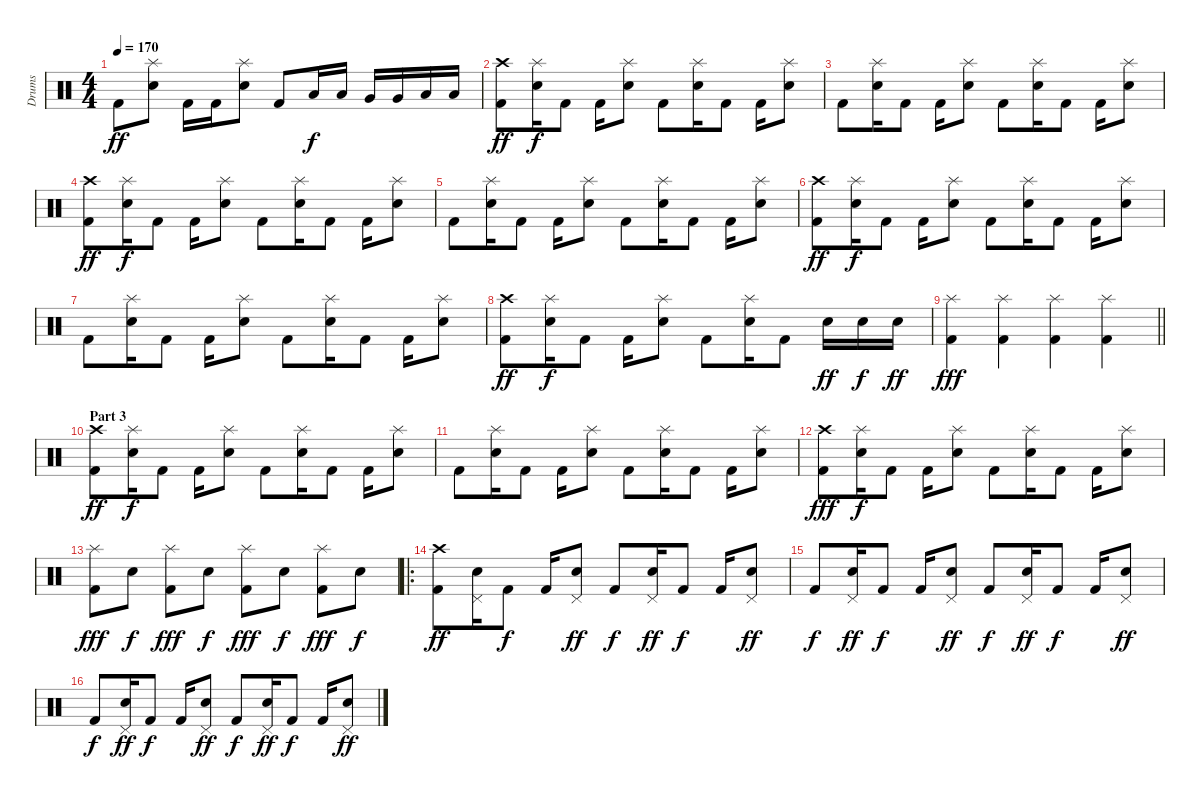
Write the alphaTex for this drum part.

\track ("Drums" "Drums") {instrument percussion}
\staff {score}
\articulation defaults
\ts (4 4)
\tempo 170
\clef neutral
\ks c "Kick (hit) 2".8{dy ff}
("Electric Snare (hit)" "Splash (hit)").8 "Kick (hit) 2".16 "Kick (hit) 2".16 ("Electric Snare (hit)" "Splash (hit)").8 "Kick (hit) 2".8 "Low Tom (hit)".16{dy f} "Low Tom (hit)".16 "Very Low Tom (hit)".16 "Very Low Tom (hit)".16 "Low Floor Tom (hit)".16 "Low Floor Tom (hit)".16 |
("Kick (hit) 2" "Crash high (hit)").8{dy ff} ("Electric Snare (hit)" "Splash (hit)").16{dy f} "Kick (hit) 2".8 "Kick (hit) 2".16 ("Electric Snare (hit)" "Splash (hit)").8 "Kick (hit) 2".8 ("Electric Snare (hit)" "Splash (hit)").16 "Kick (hit) 2".8 "Kick (hit) 2".16 ("Electric Snare (hit)" "Splash (hit)").8 |
"Kick (hit) 2".8 ("Electric Snare (hit)" "Splash (hit)").16 "Kick (hit) 2".8 "Kick (hit) 2".16 ("Electric Snare (hit)" "Splash (hit)").8 "Kick (hit) 2".8 ("Electric Snare (hit)" "Splash (hit)").16 "Kick (hit) 2".8 "Kick (hit) 2".16 ("Electric Snare (hit)" "Splash (hit)").8 |
("Kick (hit) 2" "Crash high (hit)").8{dy ff} ("Electric Snare (hit)" "Splash (hit)").16{dy f} "Kick (hit) 2".8 "Kick (hit) 2".16 ("Electric Snare (hit)" "Splash (hit)").8 "Kick (hit) 2".8 ("Electric Snare (hit)" "Splash (hit)").16 "Kick (hit) 2".8 "Kick (hit) 2".16 ("Electric Snare (hit)" "Splash (hit)").8 |
"Kick (hit) 2".8 ("Electric Snare (hit)" "Splash (hit)").16 "Kick (hit) 2".8 "Kick (hit) 2".16 ("Electric Snare (hit)" "Splash (hit)").8 "Kick (hit) 2".8 ("Electric Snare (hit)" "Splash (hit)").16 "Kick (hit) 2".8 "Kick (hit) 2".16 ("Electric Snare (hit)" "Splash (hit)").8 |
("Kick (hit) 2" "Crash high (hit)").8{dy ff} ("Electric Snare (hit)" "Splash (hit)").16{dy f} "Kick (hit) 2".8 "Kick (hit) 2".16 ("Electric Snare (hit)" "Splash (hit)").8 "Kick (hit) 2".8 ("Electric Snare (hit)" "Splash (hit)").16 "Kick (hit) 2".8 "Kick (hit) 2".16 ("Electric Snare (hit)" "Splash (hit)").8 |
"Kick (hit) 2".8 ("Electric Snare (hit)" "Splash (hit)").16 "Kick (hit) 2".8 "Kick (hit) 2".16 ("Electric Snare (hit)" "Splash (hit)").8 "Kick (hit) 2".8 ("Electric Snare (hit)" "Splash (hit)").16 "Kick (hit) 2".8 "Kick (hit) 2".16 ("Electric Snare (hit)" "Splash (hit)").8 |
("Kick (hit) 2" "Crash high (hit)").8{dy ff} ("Electric Snare (hit)" "Splash (hit)").16{dy f} "Kick (hit) 2".8 "Kick (hit) 2".16 ("Electric Snare (hit)" "Splash (hit)").8 "Kick (hit) 2".8 ("Electric Snare (hit)" "Splash (hit)").16 "Kick (hit) 2".8 "Electric Snare (hit)".16{dy ff} "Electric Snare (hit)".16{dy f} "Electric Snare (hit)".16{dy ff} |
\barLineRight lightlight
("Kick (hit) 2" "Splash (hit)").4{dy fff} ("Kick (hit) 2" "Splash (hit)").4 ("Kick (hit) 2" "Splash (hit)").4 ("Kick (hit) 2" "Splash (hit)").4 |
\section ("" "Part 3")
("Kick (hit) 2" "Crash high (hit)").8{dy ff} ("Electric Snare (hit)" "Splash (hit)").16{dy f} "Kick (hit) 2".8 "Kick (hit) 2".16 ("Electric Snare (hit)" "Splash (hit)").8 "Kick (hit) 2".8 ("Electric Snare (hit)" "Splash (hit)").16 "Kick (hit) 2".8 "Kick (hit) 2".16 ("Electric Snare (hit)" "Splash (hit)").8 |
"Kick (hit) 2".8 ("Electric Snare (hit)" "Splash (hit)").16 "Kick (hit) 2".8 "Kick (hit) 2".16 ("Electric Snare (hit)" "Splash (hit)").8 "Kick (hit) 2".8 ("Electric Snare (hit)" "Splash (hit)").16 "Kick (hit) 2".8 "Kick (hit) 2".16 ("Electric Snare (hit)" "Splash (hit)").8 |
("Kick (hit) 2" "Crash high (hit)").8{dy fff} ("Electric Snare (hit)" "Splash (hit)").16{dy f} "Kick (hit) 2".8 "Kick (hit) 2".16 ("Electric Snare (hit)" "Splash (hit)").8 "Kick (hit) 2".8 ("Electric Snare (hit)" "Splash (hit)").16 "Kick (hit) 2".8 "Kick (hit) 2".16 ("Electric Snare (hit)" "Splash (hit)").8 |
("Kick (hit) 2" "Splash (hit)").8{dy fff} "Electric Snare (hit)".8{dy f} ("Kick (hit) 2" "Splash (hit)").8{dy fff} "Electric Snare (hit)".8{dy f} ("Kick (hit) 2" "Splash (hit)").8{dy fff} "Electric Snare (hit)".8{dy f} ("Kick (hit) 2" "Splash (hit)").8{dy fff} "Electric Snare (hit)".8{dy f} |
\ro
("Kick (hit) 2" "Crash high (hit)").8{dy ff} ("Electric Snare (hit)" "Pedal Hi-Hat (hit)").16 "Kick (hit) 2".8{dy f} "Kick (hit) 2".16 ("Electric Snare (hit)" "Pedal Hi-Hat (hit)").8{dy ff} "Kick (hit) 2".8{dy f} ("Electric Snare (hit)" "Pedal Hi-Hat (hit)").16{dy ff} "Kick (hit) 2".8{dy f} "Kick (hit) 2".16 ("Electric Snare (hit)" "Pedal Hi-Hat (hit)").8{dy ff} |
"Kick (hit) 2".8{dy f} ("Electric Snare (hit)" "Pedal Hi-Hat (hit)").16{dy ff} "Kick (hit) 2".8{dy f} "Kick (hit) 2".16 ("Electric Snare (hit)" "Pedal Hi-Hat (hit)").8{dy ff} "Kick (hit) 2".8{dy f} ("Electric Snare (hit)" "Pedal Hi-Hat (hit)").16{dy ff} "Kick (hit) 2".8{dy f} "Kick (hit) 2".16 ("Electric Snare (hit)" "Pedal Hi-Hat (hit)").8{dy ff} |
"Kick (hit) 2".8{dy f} ("Electric Snare (hit)" "Pedal Hi-Hat (hit)").16{dy ff} "Kick (hit) 2".8{dy f} "Kick (hit) 2".16 ("Electric Snare (hit)" "Pedal Hi-Hat (hit)").8{dy ff} "Kick (hit) 2".8{dy f} ("Electric Snare (hit)" "Pedal Hi-Hat (hit)").16{dy ff} "Kick (hit) 2".8{dy f} "Kick (hit) 2".16 ("Electric Snare (hit)" "Pedal Hi-Hat (hit)").8{dy ff}
